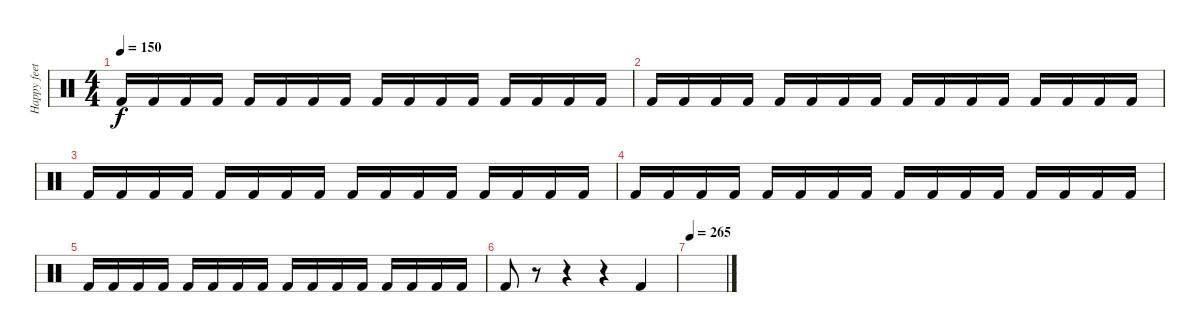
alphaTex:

\track ("Happy feet" "Happy feet") {instrument percussion}
\staff {score}
\articulation defaults
\ts (4 4)
\tempo 150
\clef neutral
\ks c "Kick (hit) 2".16{dy f} "Kick (hit) 2".16 "Kick (hit) 2".16 "Kick (hit) 2".16 "Kick (hit) 2".16 "Kick (hit) 2".16 "Kick (hit) 2".16 "Kick (hit) 2".16 "Kick (hit) 2".16 "Kick (hit) 2".16 "Kick (hit) 2".16 "Kick (hit) 2".16 "Kick (hit) 2".16 "Kick (hit) 2".16 "Kick (hit) 2".16 "Kick (hit) 2".16
|
"Kick (hit) 2".16 "Kick (hit) 2".16 "Kick (hit) 2".16 "Kick (hit) 2".16 "Kick (hit) 2".16 "Kick (hit) 2".16 "Kick (hit) 2".16 "Kick (hit) 2".16 "Kick (hit) 2".16 "Kick (hit) 2".16 "Kick (hit) 2".16 "Kick (hit) 2".16 "Kick (hit) 2".16 "Kick (hit) 2".16 "Kick (hit) 2".16 "Kick (hit) 2".16 |
"Kick (hit) 2".16 "Kick (hit) 2".16 "Kick (hit) 2".16 "Kick (hit) 2".16 "Kick (hit) 2".16 "Kick (hit) 2".16 "Kick (hit) 2".16 "Kick (hit) 2".16 "Kick (hit) 2".16 "Kick (hit) 2".16 "Kick (hit) 2".16 "Kick (hit) 2".16 "Kick (hit) 2".16 "Kick (hit) 2".16 "Kick (hit) 2".16 "Kick (hit) 2".16 |
"Kick (hit) 2".16 "Kick (hit) 2".16 "Kick (hit) 2".16 "Kick (hit) 2".16 "Kick (hit) 2".16 "Kick (hit) 2".16 "Kick (hit) 2".16 "Kick (hit) 2".16 "Kick (hit) 2".16 "Kick (hit) 2".16 "Kick (hit) 2".16 "Kick (hit) 2".16 "Kick (hit) 2".16 "Kick (hit) 2".16 "Kick (hit) 2".16 "Kick (hit) 2".16 |
"Kick (hit) 2".16 "Kick (hit) 2".16 "Kick (hit) 2".16 "Kick (hit) 2".16 "Kick (hit) 2".16 "Kick (hit) 2".16 "Kick (hit) 2".16 "Kick (hit) 2".16 "Kick (hit) 2".16 "Kick (hit) 2".16 "Kick (hit) 2".16 "Kick (hit) 2".16 "Kick (hit) 2".16 "Kick (hit) 2".16 "Kick (hit) 2".16 "Kick (hit) 2".16 |
"Kick (hit) 2".8 r.8 r.4 r.4 "Kick (hit) 2".4 |
\tempo 265
